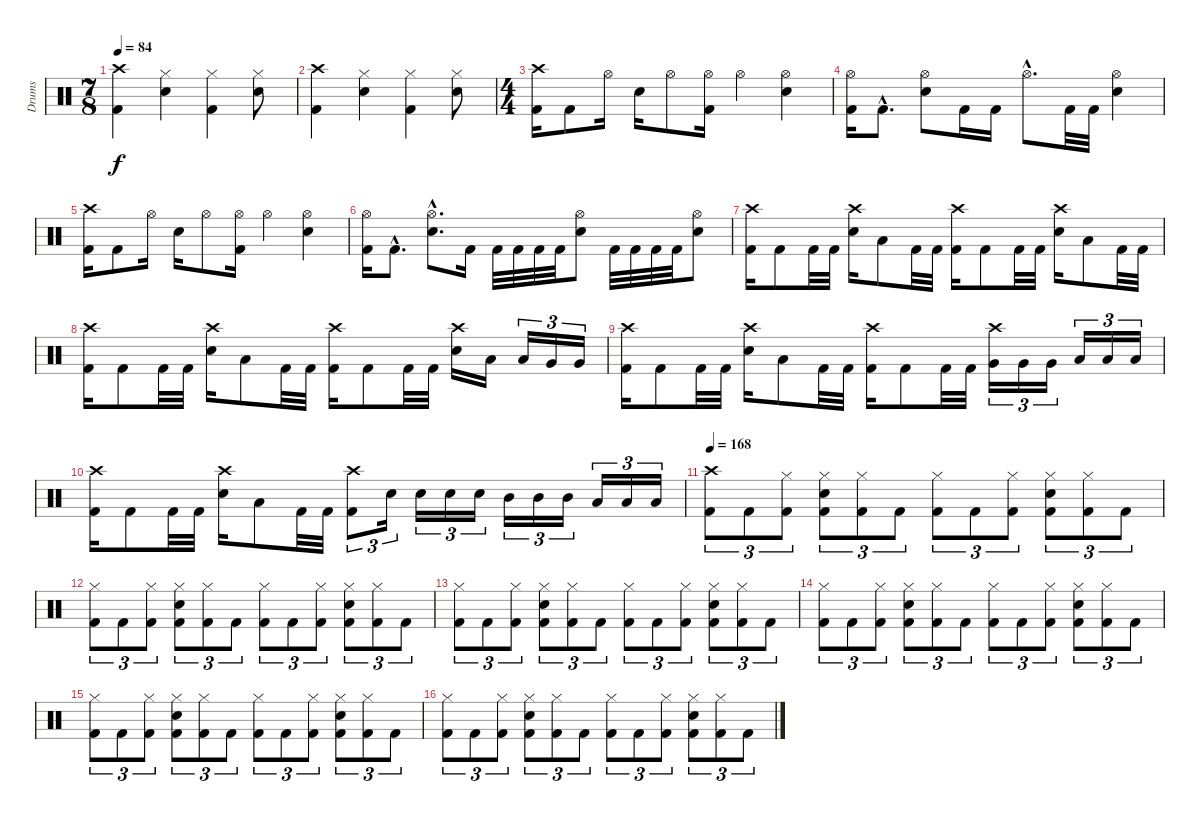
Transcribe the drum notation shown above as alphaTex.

\track ("Drums" "Drums") {instrument percussion}
\staff {score}
\articulation defaults
\ts (7 8)
\tempo 84
\clef neutral
\ks c
("Crash high (hit)" "Kick (hit) 2").4{dy f} ("Hi-Hat (closed)" "Electric Snare (hit)").4 ("Hi-Hat (closed)" "Kick (hit) 2").4 ("Hi-Hat (closed)" "Electric Snare (hit)").8 |
("Crash high (hit)" "Kick (hit) 2").4 ("Hi-Hat (closed)" "Electric Snare (hit)").4 ("Hi-Hat (closed)" "Kick (hit) 2").4 ("Hi-Hat (closed)" "Electric Snare (hit)").8 |
\ts (4 4)
("Crash high (hit)" "Kick (hit) 2").16 "Kick (hit) 2".8 "Hi-Hat (open)".16 "Electric Snare (hit)".16 "Hi-Hat (open)".8 ("Hi-Hat (open)" "Kick (hit) 2").16 "Hi-Hat (open)".4 ("Hi-Hat (open)" "Electric Snare (hit)").4 |
("Hi-Hat (open)" "Kick (hit) 2").16 "Kick (hit) 2"{hac}.8{d} ("Hi-Hat (open)" "Electric Snare (hit)").8 "Kick (hit) 2".16 "Kick (hit) 2".16 "Hi-Hat (open)"{hac}.8{d} "Kick (hit) 2".32 "Kick (hit) 2".32 ("Hi-Hat (open)" "Electric Snare (hit)").4 |
("Crash high (hit)" "Kick (hit) 2").16 "Kick (hit) 2".8 "Hi-Hat (open)".16 "Electric Snare (hit)".16 "Hi-Hat (open)".8 ("Hi-Hat (open)" "Kick (hit) 2").16 "Hi-Hat (open)".4 ("Hi-Hat (open)" "Electric Snare (hit)").4 |
("Hi-Hat (open)" "Kick (hit) 2").16 "Kick (hit) 2"{hac}.8{d} ("Hi-Hat (open)"{hac} "Electric Snare (hit)"{hac}).8{d} "Kick (hit) 2".16 "Kick (hit) 2".32 "Kick (hit) 2".32 "Kick (hit) 2".32 "Kick (hit) 2".32 ("Hi-Hat (open)" "Electric Snare (hit)").8 "Kick (hit) 2".32 "Kick (hit) 2".32 "Kick (hit) 2".32 "Kick (hit) 2".32 ("Hi-Hat (open)" "Electric Snare (hit)").8 |
("Crash high (hit)" "Kick (hit) 2").16 "Kick (hit) 2".8 "Kick (hit) 2".32 "Kick (hit) 2".32 ("Crash high (hit)" "Electric Snare (hit)").16 "Low Tom (hit)".8 "Kick (hit) 2".32 "Kick (hit) 2".32 ("Crash high (hit)" "Kick (hit) 2").16 "Kick (hit) 2".8 "Kick (hit) 2".32 "Kick (hit) 2".32 ("Crash high (hit)" "Electric Snare (hit)").16 "Low Tom (hit)".8 "Kick (hit) 2".32 "Kick (hit) 2".32 |
("Crash high (hit)" "Kick (hit) 2").16 "Kick (hit) 2".8 "Kick (hit) 2".32 "Kick (hit) 2".32 ("Crash high (hit)" "Electric Snare (hit)").16 "Low Tom (hit)".8 "Kick (hit) 2".32 "Kick (hit) 2".32 ("Crash high (hit)" "Kick (hit) 2").16 "Kick (hit) 2".8 "Kick (hit) 2".32 "Kick (hit) 2".32 ("Crash high (hit)" "Electric Snare (hit)").16 "Low Tom (hit)".16 "Low Tom (hit)".16{tu (3 2)} "Very Low Tom (hit)".16{tu (3 2)} "Very Low Tom (hit)".16{tu (3 2)} |
("Crash high (hit)" "Kick (hit) 2").16 "Kick (hit) 2".8 "Kick (hit) 2".32 "Kick (hit) 2".32 ("Crash high (hit)" "Electric Snare (hit)").16 "Low Tom (hit)".8 "Kick (hit) 2".32 "Kick (hit) 2".32 ("Crash high (hit)" "Kick (hit) 2").16 "Kick (hit) 2".8 "Kick (hit) 2".32 "Kick (hit) 2".32 ("Crash high (hit)" "Very Low Tom (hit)").16{tu (3 2)} "Very Low Tom (hit)".16{tu (3 2)} "Very Low Tom (hit)".16{tu (3 2)} "Low Floor Tom (hit)".16{tu (3 2)} "Low Floor Tom (hit)".16{tu (3 2)} "Low Floor Tom (hit)".16{tu (3 2)} |
("Crash high (hit)" "Kick (hit) 2").16 "Kick (hit) 2".8 "Kick (hit) 2".32 "Kick (hit) 2".32 ("Crash high (hit)" "Electric Snare (hit)").16 "Low Tom (hit)".8 "Kick (hit) 2".32 "Kick (hit) 2".32 ("Crash high (hit)" "Kick (hit) 2").8{tu (3 2)} "Electric Snare (hit)".16{tu (3 2)} "Electric Snare (hit)".16{tu (3 2)} "Electric Snare (hit)".16{tu (3 2)} "Electric Snare (hit)".16{tu (3 2)} "Mid Tom (hit)".16{tu (3 2)} "Mid Tom (hit)".16{tu (3 2)} "Mid Tom (hit)".16{tu (3 2)} "Low Tom (hit)".16{tu (3 2)} "Low Tom (hit)".16{tu (3 2)} "Low Tom (hit)".16{tu (3 2)} |
\tempo 168
("Crash high (hit)" "Kick (hit) 2").8{tu (3 2)} "Kick (hit) 2".8{tu (3 2)} ("Hi-Hat (closed)" "Kick (hit) 2").8{tu (3 2)} ("Hi-Hat (closed)" "Electric Snare (hit)" "Kick (hit) 2").8{tu (3 2)} ("Hi-Hat (closed)" "Kick (hit) 2").8{tu (3 2)} "Kick (hit) 2".8{tu (3 2)} ("Hi-Hat (closed)" "Kick (hit) 2").8{tu (3 2)} "Kick (hit) 2".8{tu (3 2)} ("Hi-Hat (closed)" "Kick (hit) 2").8{tu (3 2)} ("Hi-Hat (closed)" "Electric Snare (hit)" "Kick (hit) 2").8{tu (3 2)} ("Hi-Hat (closed)" "Kick (hit) 2").8{tu (3 2)} "Kick (hit) 2".8{tu (3 2)} |
("Hi-Hat (closed)" "Kick (hit) 2").8{tu (3 2)} "Kick (hit) 2".8{tu (3 2)} ("Hi-Hat (closed)" "Kick (hit) 2").8{tu (3 2)} ("Hi-Hat (closed)" "Electric Snare (hit)" "Kick (hit) 2").8{tu (3 2)} ("Hi-Hat (closed)" "Kick (hit) 2").8{tu (3 2)} "Kick (hit) 2".8{tu (3 2)} ("Hi-Hat (closed)" "Kick (hit) 2").8{tu (3 2)} "Kick (hit) 2".8{tu (3 2)} ("Hi-Hat (closed)" "Kick (hit) 2").8{tu (3 2)} ("Hi-Hat (closed)" "Electric Snare (hit)" "Kick (hit) 2").8{tu (3 2)} ("Hi-Hat (closed)" "Kick (hit) 2").8{tu (3 2)} "Kick (hit) 2".8{tu (3 2)} |
("Hi-Hat (closed)" "Kick (hit) 2").8{tu (3 2)} "Kick (hit) 2".8{tu (3 2)} ("Hi-Hat (closed)" "Kick (hit) 2").8{tu (3 2)} ("Hi-Hat (closed)" "Electric Snare (hit)" "Kick (hit) 2").8{tu (3 2)} ("Hi-Hat (closed)" "Kick (hit) 2").8{tu (3 2)} "Kick (hit) 2".8{tu (3 2)} ("Hi-Hat (closed)" "Kick (hit) 2").8{tu (3 2)} "Kick (hit) 2".8{tu (3 2)} ("Hi-Hat (closed)" "Kick (hit) 2").8{tu (3 2)} ("Hi-Hat (closed)" "Electric Snare (hit)" "Kick (hit) 2").8{tu (3 2)} ("Hi-Hat (closed)" "Kick (hit) 2").8{tu (3 2)} "Kick (hit) 2".8{tu (3 2)} |
("Hi-Hat (closed)" "Kick (hit) 2").8{tu (3 2)} "Kick (hit) 2".8{tu (3 2)} ("Hi-Hat (closed)" "Kick (hit) 2").8{tu (3 2)} ("Hi-Hat (closed)" "Electric Snare (hit)" "Kick (hit) 2").8{tu (3 2)} ("Hi-Hat (closed)" "Kick (hit) 2").8{tu (3 2)} "Kick (hit) 2".8{tu (3 2)} ("Hi-Hat (closed)" "Kick (hit) 2").8{tu (3 2)} "Kick (hit) 2".8{tu (3 2)} ("Hi-Hat (closed)" "Kick (hit) 2").8{tu (3 2)} ("Hi-Hat (closed)" "Electric Snare (hit)" "Kick (hit) 2").8{tu (3 2)} ("Hi-Hat (closed)" "Kick (hit) 2").8{tu (3 2)} "Kick (hit) 2".8{tu (3 2)} |
("Hi-Hat (closed)" "Kick (hit) 2").8{tu (3 2)} "Kick (hit) 2".8{tu (3 2)} ("Hi-Hat (closed)" "Kick (hit) 2").8{tu (3 2)} ("Hi-Hat (closed)" "Electric Snare (hit)" "Kick (hit) 2").8{tu (3 2)} ("Hi-Hat (closed)" "Kick (hit) 2").8{tu (3 2)} "Kick (hit) 2".8{tu (3 2)} ("Hi-Hat (closed)" "Kick (hit) 2").8{tu (3 2)} "Kick (hit) 2".8{tu (3 2)} ("Hi-Hat (closed)" "Kick (hit) 2").8{tu (3 2)} ("Hi-Hat (closed)" "Electric Snare (hit)" "Kick (hit) 2").8{tu (3 2)} ("Hi-Hat (closed)" "Kick (hit) 2").8{tu (3 2)} "Kick (hit) 2".8{tu (3 2)} |
("Hi-Hat (closed)" "Kick (hit) 2").8{tu (3 2)} "Kick (hit) 2".8{tu (3 2)} ("Hi-Hat (closed)" "Kick (hit) 2").8{tu (3 2)} ("Hi-Hat (closed)" "Electric Snare (hit)" "Kick (hit) 2").8{tu (3 2)} ("Hi-Hat (closed)" "Kick (hit) 2").8{tu (3 2)} "Kick (hit) 2".8{tu (3 2)} ("Hi-Hat (closed)" "Kick (hit) 2").8{tu (3 2)} "Kick (hit) 2".8{tu (3 2)} ("Hi-Hat (closed)" "Kick (hit) 2").8{tu (3 2)} ("Hi-Hat (closed)" "Electric Snare (hit)" "Kick (hit) 2").8{tu (3 2)} ("Hi-Hat (closed)" "Kick (hit) 2").8{tu (3 2)} "Kick (hit) 2".8{tu (3 2)}
